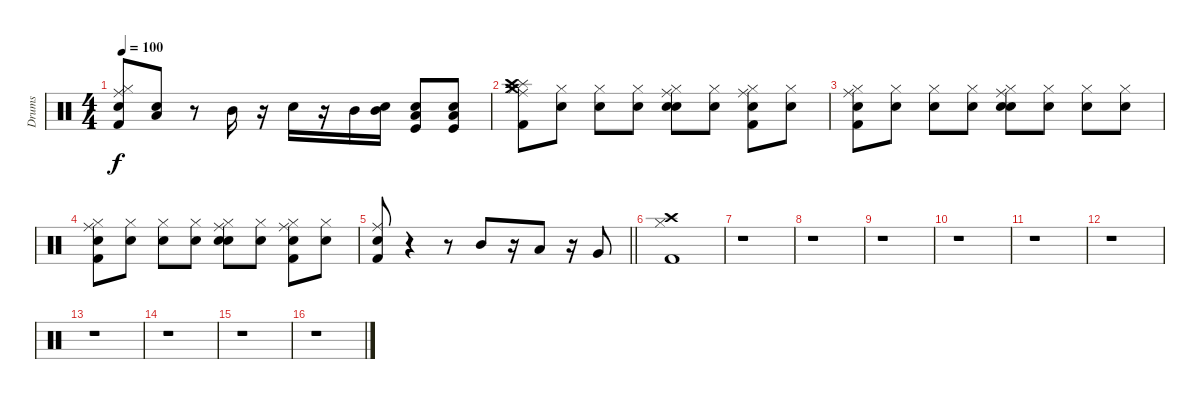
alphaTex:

\track ("Drums" "Drums") {instrument percussion}
\staff {score}
\articulation defaults
\ts (4 4)
\tempo 100
\clef neutral
\ks c
("Snare (hit)" "Ride (middle)" "Hi-Hat (closed)" "Kick (hit) 2").8{dy f} ("Snare (hit)" "Low Tom (hit)").8 r.8 "Mid Tom (hit)".16 r.16 "Snare (hit) 2".16 r.16 "Mid Tom (hit)".16 ("Snare (hit)" "Mid Tom (hit)").16 ("Snare (hit)" "Kick (hit)" "Low Tom (hit)").8 ("Snare (hit)" "Kick (hit)" "Low Tom (hit)").8 |
("Ride (middle)" "Hi-Hat (closed)" "Kick (hit) 2" "Crash medium (hit)" "Splash (hit)" "Crash high (hit)").8 ("Snare (hit)" "Hi-Hat (closed)").8 ("Snare (hit)" "Hi-Hat (closed)").8 ("Snare (hit)" "Hi-Hat (closed)").8 ("Snare (hit)" "Ride (middle)" "Hi-Hat (closed)" "Snare (hit) 2").8 ("Snare (hit)" "Hi-Hat (closed)").8 ("Snare (hit)" "Kick (hit) 2" "Ride (middle)" "Hi-Hat (closed)").8 ("Snare (hit)" "Hi-Hat (closed)").8 |
("Snare (hit)" "Kick (hit) 2" "Ride (middle)" "Hi-Hat (closed)").8 ("Snare (hit)" "Hi-Hat (closed)").8 ("Snare (hit)" "Hi-Hat (closed)").8 ("Snare (hit)" "Hi-Hat (closed)").8 ("Snare (hit)" "Snare (hit) 2" "Ride (middle)" "Hi-Hat (closed)").8 ("Snare (hit)" "Hi-Hat (closed)").8 ("Snare (hit)" "Hi-Hat (closed)").8 ("Snare (hit)" "Hi-Hat (closed)").8 |
("Snare (hit)" "Kick (hit) 2" "Ride (middle)" "Hi-Hat (closed)").8 ("Snare (hit)" "Hi-Hat (closed)").8 ("Snare (hit)" "Hi-Hat (closed)").8 ("Snare (hit)" "Hi-Hat (closed)").8 ("Snare (hit)" "Ride (middle)" "Snare (hit) 2" "Hi-Hat (closed)").8 ("Snare (hit)" "Hi-Hat (closed)").8 ("Snare (hit)" "Ride (middle)" "Kick (hit) 2" "Hi-Hat (closed)").8 ("Snare (hit)" "Hi-Hat (closed)").8 |
\barLineRight lightlight
("Snare (hit)" "Ride (middle)" "Kick (hit) 2").8 r.4 r.8 "Mid Tom (hit)".8 r.16 "Low Tom (hit)".8 r.16 "Very Low Tom (hit)".8 |
("Crash high (hit)" "Hi-Hat (closed)" "Kick (hit) 2").1 |
r.1 |
r.1 |
r.1 |
r.1 |
r.1 |
r.1 |
r.1 |
r.1 |
r.1 |
r.1
